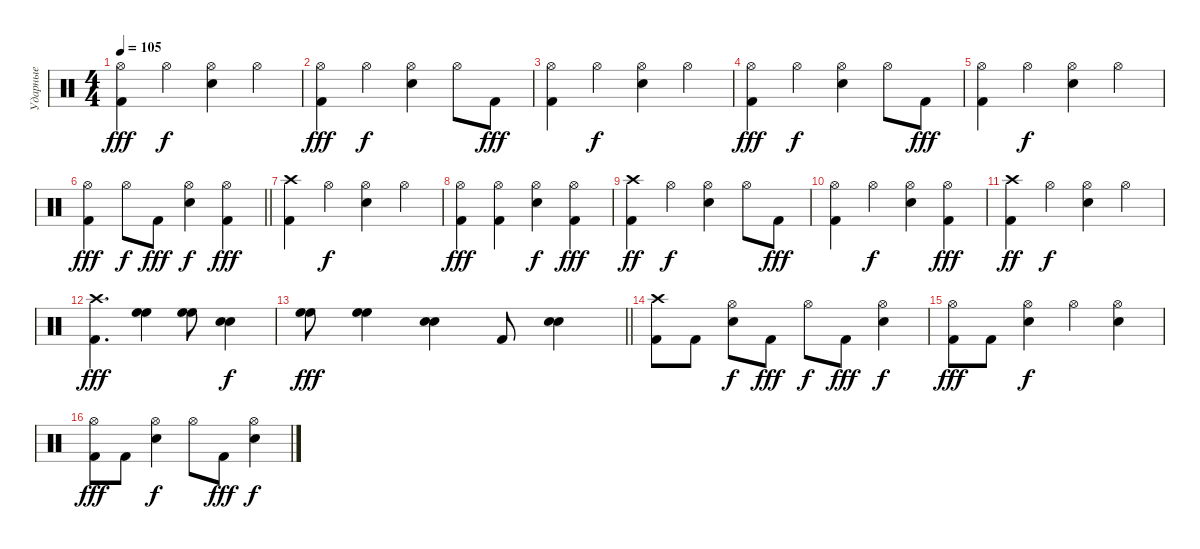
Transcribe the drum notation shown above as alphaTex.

\track ("Ударные" "Ударные") {instrument percussion}
\staff {score}
\articulation defaults
\ts (4 4)
\tempo 105
\clef neutral
\ks c
("Kick (hit) 2" "Hi-Hat (open)").4{dy fff} "Hi-Hat (open)".4{dy f} ("Snare (hit) 2" "Hi-Hat (open)").4 "Hi-Hat (open)".4 |
("Kick (hit) 2" "Hi-Hat (open)").4{dy fff} "Hi-Hat (open)".4{dy f} ("Snare (hit) 2" "Hi-Hat (open)").4 "Hi-Hat (open)".8 "Kick (hit) 2".8{dy fff} |
("Kick (hit) 2" "Hi-Hat (open)").4 "Hi-Hat (open)".4{dy f} ("Snare (hit) 2" "Hi-Hat (open)").4 "Hi-Hat (open)".4 |
("Kick (hit) 2" "Hi-Hat (open)").4{dy fff} "Hi-Hat (open)".4{dy f} ("Snare (hit) 2" "Hi-Hat (open)").4 "Hi-Hat (open)".8 "Kick (hit) 2".8{dy fff} |
("Kick (hit) 2" "Hi-Hat (open)").4 "Hi-Hat (open)".4{dy f} ("Snare (hit) 2" "Hi-Hat (open)").4 "Hi-Hat (open)".4 |
\barLineRight lightlight
("Kick (hit) 2" "Hi-Hat (open)").4{dy fff} "Hi-Hat (open)".8{dy f} "Kick (hit) 2".8{dy fff} ("Snare (hit) 2" "Hi-Hat (open)").4{dy f} ("Kick (hit) 2" "Hi-Hat (open)").4{dy fff} |
("Kick (hit) 2" "Crash high (hit)").4 "Hi-Hat (open)".4{dy f} ("Snare (hit) 2" "Hi-Hat (open)").4 "Hi-Hat (open)".4 |
("Kick (hit) 2" "Hi-Hat (open)").4{dy fff} ("Kick (hit) 2" "Hi-Hat (open)").4 ("Snare (hit) 2" "Hi-Hat (open)").4{dy f} ("Kick (hit) 2" "Hi-Hat (open)").4{dy fff} |
("Kick (hit) 2" "Crash high (hit)").4{dy ff} "Hi-Hat (open)".4{dy f} ("Snare (hit) 2" "Hi-Hat (open)").4 "Hi-Hat (open)".8 "Kick (hit) 2".8{dy fff} |
("Kick (hit) 2" "Hi-Hat (open)").4 "Hi-Hat (open)".4{dy f} ("Snare (hit) 2" "Hi-Hat (open)").4 ("Kick (hit) 2" "Hi-Hat (open)").4{dy fff} |
("Kick (hit) 2" "Crash high (hit)").4{dy ff} "Hi-Hat (open)".4{dy f} ("Snare (hit) 2" "Hi-Hat (open)").4 "Hi-Hat (open)".4 |
("Kick (hit) 2" "Crash high (hit)").4{d dy fff} ("High Floor Tom (hit)" "High Floor Tom (hit)").4 ("High Floor Tom (hit)" "High Floor Tom (hit)").8 ("Snare (hit) 2" "Snare (hit) 2").4{dy f} |
\barLineRight lightlight
("High Floor Tom (hit)" "High Floor Tom (hit)").8{dy fff} ("High Floor Tom (hit)" "High Floor Tom (hit)").4 ("Electric Snare (hit)" "Electric Snare (hit)").4 "Kick (hit) 2".8 ("Snare (hit) 2" "Snare (hit) 2").4 |
("Kick (hit) 2" "Crash high (hit)").8 "Kick (hit) 2".8 ("Snare (hit) 2" "Hi-Hat (open)").8{dy f} "Kick (hit) 2".8{dy fff} "Hi-Hat (open)".8{dy f} "Kick (hit) 2".8{dy fff} ("Snare (hit) 2" "Hi-Hat (open)").4{dy f} |
("Kick (hit) 2" "Hi-Hat (open)").8{dy fff} "Kick (hit) 2".8 ("Snare (hit) 2" "Hi-Hat (open)").4{dy f} "Hi-Hat (open)".4 ("Snare (hit) 2" "Hi-Hat (open)").4 |
("Kick (hit) 2" "Hi-Hat (open)").8{dy fff} "Kick (hit) 2".8 ("Snare (hit) 2" "Hi-Hat (open)").4{dy f} "Hi-Hat (open)".8 "Kick (hit) 2".8{dy fff} ("Snare (hit) 2" "Hi-Hat (open)").4{dy f}
